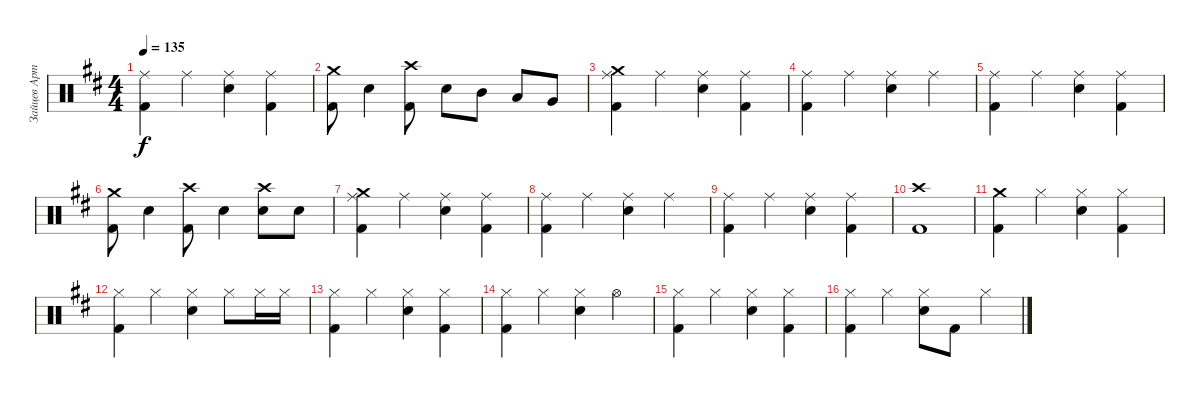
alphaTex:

\track ("Зайцев Артём" "Зайцев Арт") {instrument percussion}
\staff {score}
\articulation defaults
\ts (4 4)
\tempo 135
\clef neutral
\ks d
("Ride (middle)" "Kick (hit) 2").4{dy f} "Ride (middle)".4 ("Ride (middle)" "Snare (hit) 2").4 ("Ride (middle)" "Kick (hit) 2").4 |
("Kick (hit) 2" "Crash medium (hit)").8 "Snare (hit) 2".4 ("Kick (hit) 2" "Crash high (hit)").8 "Snare (hit) 2".8 "Mid Tom (hit)".8 "Low Tom (hit)".8 "Very Low Tom (hit)".8 |
("Ride (middle)" "Crash medium (hit)" "Kick (hit) 2").4 "Ride (middle)".4 ("Ride (middle)" "Snare (hit) 2").4 ("Ride (middle)" "Kick (hit) 2").4 |
("Ride (middle)" "Kick (hit) 2").4 "Ride (middle)".4 ("Ride (middle)" "Snare (hit) 2").4 "Ride (middle)".4 |
("Ride (middle)" "Kick (hit) 2").4 "Ride (middle)".4 ("Ride (middle)" "Snare (hit) 2").4 ("Ride (middle)" "Kick (hit) 2").4 |
("Kick (hit) 2" "Crash medium (hit)").8 "Snare (hit) 2".4 ("Kick (hit) 2" "Crash high (hit)").8 "Snare (hit) 2".4 ("Snare (hit) 2" "Crash high (hit)").8 "Snare (hit) 2".8 |
("Ride (middle)" "Crash medium (hit)" "Kick (hit) 2").4 "Ride (middle)".4 ("Ride (middle)" "Snare (hit) 2").4 ("Ride (middle)" "Kick (hit) 2").4 |
("Ride (middle)" "Kick (hit) 2").4 "Ride (middle)".4 ("Ride (middle)" "Snare (hit) 2").4 "Ride (middle)".4 |
("Ride (middle)" "Kick (hit) 2").4 "Ride (middle)".4 ("Ride (middle)" "Snare (hit) 2").4 ("Ride (middle)" "Kick (hit) 2").4 |
("Kick (hit) 2" "Crash high (hit)").1 |
("Kick (hit) 2" "Crash medium (hit)").4 "Hi-Hat (closed)".4 ("Hi-Hat (closed)" "Snare (hit) 2").4 ("Hi-Hat (closed)" "Kick (hit) 2").4 |
("Hi-Hat (closed)" "Kick (hit) 2").4 "Hi-Hat (closed)".4 ("Hi-Hat (closed)" "Snare (hit) 2").4 "Hi-Hat (closed)".8 "Hi-Hat (closed)".16 "Hi-Hat (closed)".16 |
("Hi-Hat (closed)" "Kick (hit) 2").4 "Hi-Hat (closed)".4 ("Hi-Hat (closed)" "Snare (hit) 2").4 ("Hi-Hat (closed)" "Kick (hit) 2").4 |
("Hi-Hat (closed)" "Kick (hit) 2").4 "Hi-Hat (closed)".4 ("Hi-Hat (closed)" "Snare (hit) 2").4 "Hi-Hat (open)".4 |
("Hi-Hat (closed)" "Kick (hit) 2").4 "Hi-Hat (closed)".4 ("Hi-Hat (closed)" "Snare (hit) 2").4 ("Hi-Hat (closed)" "Kick (hit) 2").4 |
("Hi-Hat (closed)" "Kick (hit) 2").4 "Hi-Hat (closed)".4 ("Hi-Hat (closed)" "Snare (hit) 2").8 "Kick (hit) 2".8 "Hi-Hat (closed)".4
